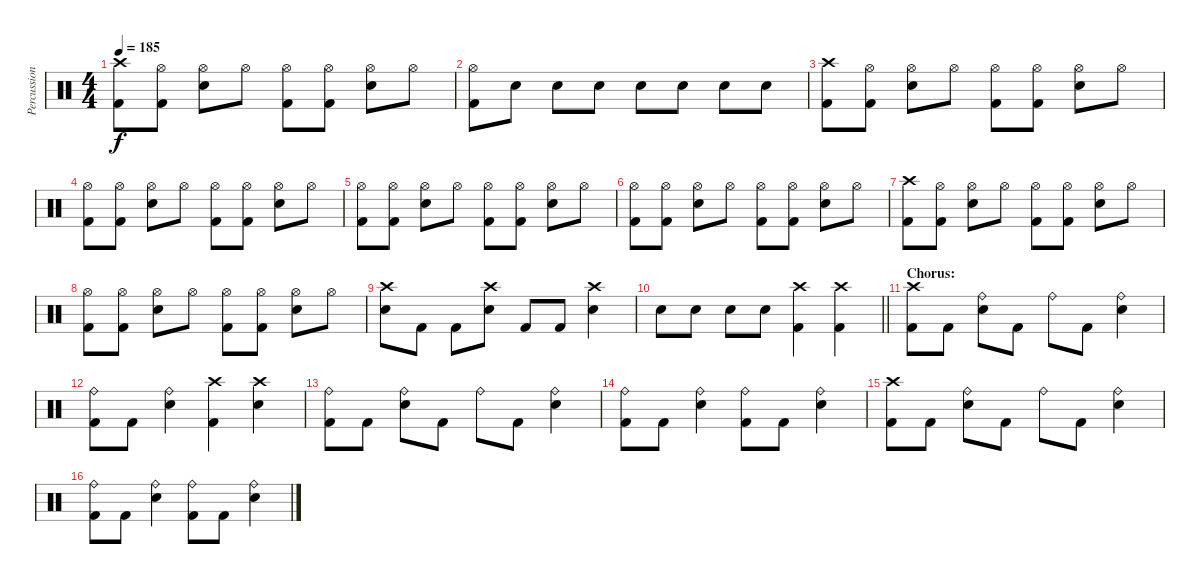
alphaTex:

\track ("Percussion" "Percussion") {instrument percussion}
\staff {score}
\articulation defaults
\ts (4 4)
\tempo 185
\clef neutral
\ks c
("Crash high (hit)" "Kick (hit) 2").8{dy f} ("Hi-Hat (open)" "Kick (hit) 2").8 ("Hi-Hat (open)" "Snare (hit) 2").8 "Hi-Hat (open)".8 ("Hi-Hat (open)" "Kick (hit) 2").8 ("Hi-Hat (open)" "Kick (hit) 2").8 ("Hi-Hat (open)" "Snare (hit) 2").8 "Hi-Hat (open)".8 |
("Hi-Hat (open)" "Kick (hit) 2").8 "Snare (hit) 2".8 "Snare (hit) 2".8 "Snare (hit) 2".8 "Snare (hit) 2".8 "Snare (hit) 2".8 "Snare (hit) 2".8 "Snare (hit) 2".8 |
("Crash high (hit)" "Kick (hit) 2").8 ("Hi-Hat (open)" "Kick (hit) 2").8 ("Hi-Hat (open)" "Snare (hit) 2").8 "Hi-Hat (open)".8 ("Hi-Hat (open)" "Kick (hit) 2").8 ("Hi-Hat (open)" "Kick (hit) 2").8 ("Hi-Hat (open)" "Snare (hit) 2").8 "Hi-Hat (open)".8 |
("Hi-Hat (open)" "Kick (hit) 2").8 ("Hi-Hat (open)" "Kick (hit) 2").8 ("Hi-Hat (open)" "Snare (hit) 2").8 "Hi-Hat (open)".8 ("Hi-Hat (open)" "Kick (hit) 2").8 ("Hi-Hat (open)" "Kick (hit) 2").8 ("Hi-Hat (open)" "Snare (hit) 2").8 "Hi-Hat (open)".8 |
("Hi-Hat (open)" "Kick (hit) 2").8 ("Hi-Hat (open)" "Kick (hit) 2").8 ("Hi-Hat (open)" "Snare (hit) 2").8 "Hi-Hat (open)".8 ("Hi-Hat (open)" "Kick (hit) 2").8 ("Hi-Hat (open)" "Kick (hit) 2").8 ("Hi-Hat (open)" "Snare (hit) 2").8 "Hi-Hat (open)".8 |
("Hi-Hat (open)" "Kick (hit) 2").8 ("Hi-Hat (open)" "Kick (hit) 2").8 ("Hi-Hat (open)" "Snare (hit) 2").8 "Hi-Hat (open)".8 ("Hi-Hat (open)" "Kick (hit) 2").8 ("Hi-Hat (open)" "Kick (hit) 2").8 ("Hi-Hat (open)" "Snare (hit) 2").8 "Hi-Hat (open)".8 |
("Crash high (hit)" "Kick (hit) 2").8 ("Hi-Hat (open)" "Kick (hit) 2").8 ("Hi-Hat (open)" "Snare (hit) 2").8 "Hi-Hat (open)".8 ("Hi-Hat (open)" "Kick (hit) 2").8 ("Hi-Hat (open)" "Kick (hit) 2").8 ("Hi-Hat (open)" "Snare (hit) 2").8 "Hi-Hat (open)".8 |
("Hi-Hat (open)" "Kick (hit) 2").8 ("Hi-Hat (open)" "Kick (hit) 2").8 ("Hi-Hat (open)" "Snare (hit) 2").8 "Hi-Hat (open)".8 ("Hi-Hat (open)" "Kick (hit) 2").8 ("Hi-Hat (open)" "Kick (hit) 2").8 ("Hi-Hat (open)" "Snare (hit) 2").8 "Hi-Hat (open)".8 |
("Crash high (hit)" "Snare (hit) 2").8 "Kick (hit) 2".8 "Kick (hit) 2".8 ("Crash high (hit)" "Snare (hit) 2").8 "Kick (hit) 2".8 "Kick (hit) 2".8 ("Crash high (hit)" "Snare (hit) 2").4 |
\barLineRight lightlight "Snare (hit) 2".8 "Snare (hit) 2".8 "Snare (hit) 2".8 "Snare (hit) 2".8
("Crash high (hit)" "Kick (hit) 2").4 ("Crash high (hit)" "Kick (hit) 2").4 |
\section ("" "Chorus:")
("Crash high (hit)" "Kick (hit) 2").8 "Kick (hit) 2".8 ("Ride (bell)" "Snare (hit) 2").8 "Kick (hit) 2".8 "Ride (bell)".8 "Kick (hit) 2".8 ("Ride (bell)" "Snare (hit) 2").4 |
("Ride (bell)" "Kick (hit) 2").8 "Kick (hit) 2".8 ("Ride (bell)" "Snare (hit) 2").4 ("Crash high (hit)" "Kick (hit) 2").4 ("Crash high (hit)" "Snare (hit) 2").4 |
("Ride (bell)" "Kick (hit) 2").8 "Kick (hit) 2".8 ("Ride (bell)" "Snare (hit) 2").8 "Kick (hit) 2".8 "Ride (bell)".8 "Kick (hit) 2".8 ("Ride (bell)" "Snare (hit) 2").4 |
("Ride (bell)" "Kick (hit) 2").8 "Kick (hit) 2".8 ("Ride (bell)" "Snare (hit) 2").4 ("Ride (bell)" "Kick (hit) 2").8 "Kick (hit) 2".8 ("Ride (bell)" "Snare (hit) 2").4 |
("Crash high (hit)" "Kick (hit) 2").8 "Kick (hit) 2".8 ("Ride (bell)" "Snare (hit) 2").8 "Kick (hit) 2".8 "Ride (bell)".8 "Kick (hit) 2".8 ("Ride (bell)" "Snare (hit) 2").4 |
("Ride (bell)" "Kick (hit) 2").8 "Kick (hit) 2".8 ("Ride (bell)" "Snare (hit) 2").4 ("Ride (bell)" "Kick (hit) 2").8 "Kick (hit) 2".8 ("Ride (bell)" "Snare (hit) 2").4
